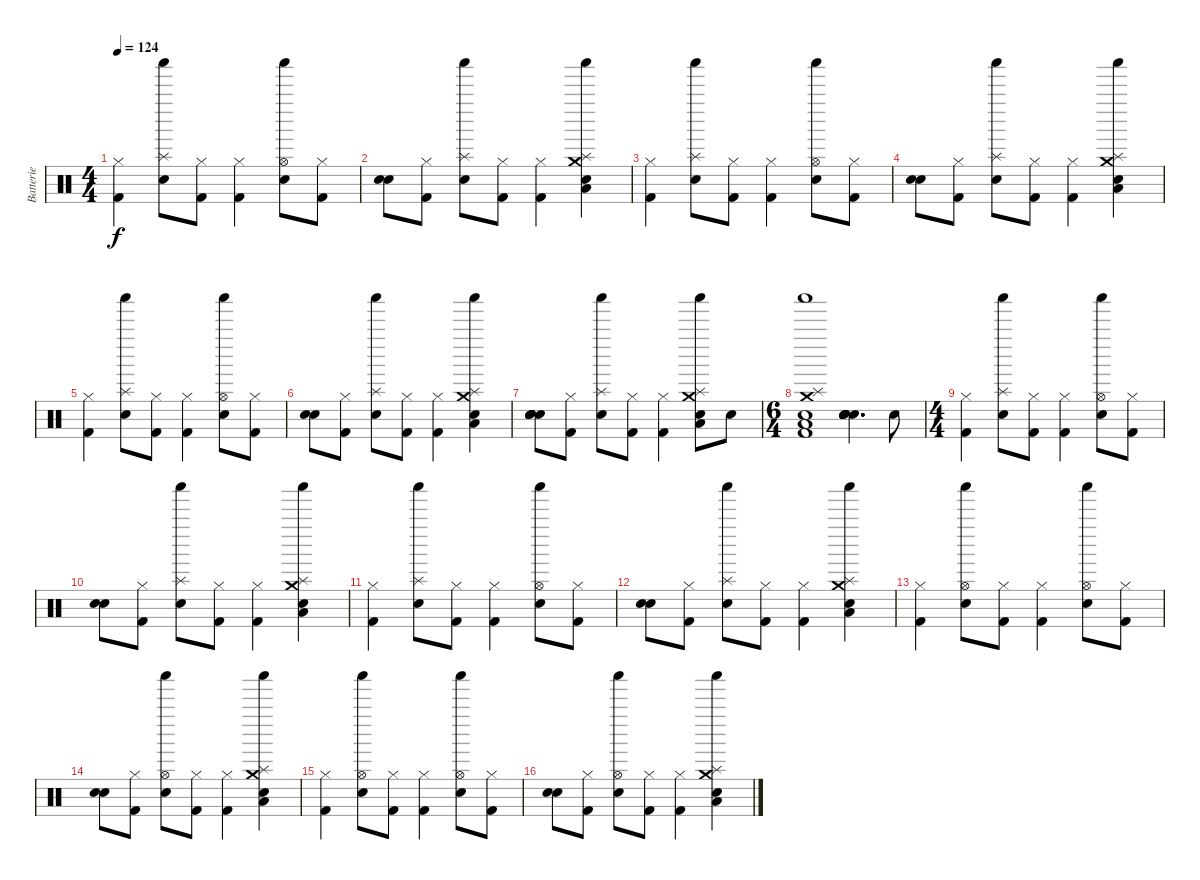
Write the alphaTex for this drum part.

\track ("Batterie" "Batterie") {instrument percussion}
\staff {score}
\articulation defaults
\ts (4 4)
\tempo 124
\clef neutral
\ks c
("Hi-Hat (closed)" "Kick (hit) 2").4{dy f} ("Shaker (hit)" "Splash (hit)" "Snare (hit) 2").8 ("Hi-Hat (closed)" "Kick (hit) 2").8 ("Hi-Hat (closed)" "Kick (hit) 2").4 ("Shaker (hit)" "Hi-Hat (open)" "Snare (hit) 2").8 ("Hi-Hat (closed)" "Kick (hit) 2").8 |
("Snare (hit)" "Snare (hit)").8 ("Hi-Hat (closed)" "Kick (hit) 2").8 ("Shaker (hit)" "Splash (hit)" "Snare (hit) 2").8 ("Hi-Hat (closed)" "Kick (hit) 2").8 ("Hi-Hat (closed)" "Kick (hit) 2").4 ("Shaker (hit)" "Splash (hit)" "Snare (hit) 2" "Crash medium (hit)" "Low Tom (hit)").4 |
("Hi-Hat (closed)" "Kick (hit) 2").4 ("Shaker (hit)" "Splash (hit)" "Snare (hit) 2").8 ("Hi-Hat (closed)" "Kick (hit) 2").8 ("Hi-Hat (closed)" "Kick (hit) 2").4 ("Shaker (hit)" "Hi-Hat (open)" "Snare (hit) 2").8 ("Hi-Hat (closed)" "Kick (hit) 2").8 |
("Snare (hit)" "Snare (hit)").8 ("Hi-Hat (closed)" "Kick (hit) 2").8 ("Shaker (hit)" "Splash (hit)" "Snare (hit) 2").8 ("Hi-Hat (closed)" "Kick (hit) 2").8 ("Hi-Hat (closed)" "Kick (hit) 2").4 ("Shaker (hit)" "Splash (hit)" "Snare (hit) 2" "Crash medium (hit)" "Low Tom (hit)").4 |
("Hi-Hat (closed)" "Kick (hit) 2").4 ("Shaker (hit)" "Splash (hit)" "Snare (hit) 2").8 ("Hi-Hat (closed)" "Kick (hit) 2").8 ("Hi-Hat (closed)" "Kick (hit) 2").4 ("Shaker (hit)" "Hi-Hat (open)" "Snare (hit) 2").8 ("Hi-Hat (closed)" "Kick (hit) 2").8 |
("Snare (hit)" "Snare (hit)").8 ("Hi-Hat (closed)" "Kick (hit) 2").8 ("Shaker (hit)" "Splash (hit)" "Snare (hit) 2").8 ("Hi-Hat (closed)" "Kick (hit) 2").8 ("Hi-Hat (closed)" "Kick (hit) 2").4 ("Shaker (hit)" "Splash (hit)" "Snare (hit) 2" "Crash medium (hit)" "Low Tom (hit)").4 |
("Snare (hit)" "Snare (hit)" "Snare (hit)" "Snare (hit)" "Snare (hit)").8 ("Hi-Hat (closed)" "Kick (hit) 2").8 ("Shaker (hit)" "Splash (hit)" "Snare (hit) 2").8 ("Hi-Hat (closed)" "Kick (hit) 2").8 ("Hi-Hat (closed)" "Kick (hit) 2").4 ("Shaker (hit)" "Splash (hit)" "Snare (hit) 2" "Crash medium (hit)" "Low Tom (hit)").8 "Snare (hit) 2".8 |
\ts (6 4)
("Low Tom (hit)" "Shaker (hit)" "Crash medium (hit)" "Snare (hit) 2" "Splash (hit)" "Kick (hit) 2").1 ("Snare (hit)" "Snare (hit)" "Snare (hit)" "Snare (hit)" "Snare (hit)" "Snare (hit)").4{d} "Snare (hit) 2".8 |
\ts (4 4)
("Hi-Hat (closed)" "Kick (hit) 2").4 ("Shaker (hit)" "Splash (hit)" "Snare (hit) 2").8 ("Hi-Hat (closed)" "Kick (hit) 2").8 ("Hi-Hat (closed)" "Kick (hit) 2").4 ("Shaker (hit)" "Hi-Hat (open)" "Snare (hit) 2").8 ("Hi-Hat (closed)" "Kick (hit) 2").8 |
("Snare (hit)" "Snare (hit)").8 ("Hi-Hat (closed)" "Kick (hit) 2").8 ("Shaker (hit)" "Splash (hit)" "Snare (hit) 2").8 ("Hi-Hat (closed)" "Kick (hit) 2").8 ("Hi-Hat (closed)" "Kick (hit) 2").4 ("Shaker (hit)" "Splash (hit)" "Snare (hit) 2" "Crash medium (hit)" "Low Tom (hit)").4 |
("Hi-Hat (closed)" "Kick (hit) 2").4 ("Shaker (hit)" "Splash (hit)" "Snare (hit) 2").8 ("Hi-Hat (closed)" "Kick (hit) 2").8 ("Hi-Hat (closed)" "Kick (hit) 2").4 ("Shaker (hit)" "Hi-Hat (open)" "Snare (hit) 2").8 ("Hi-Hat (closed)" "Kick (hit) 2").8 |
("Snare (hit)" "Snare (hit)").8 ("Hi-Hat (closed)" "Kick (hit) 2").8 ("Shaker (hit)" "Splash (hit)" "Snare (hit) 2").8 ("Hi-Hat (closed)" "Kick (hit) 2").8 ("Hi-Hat (closed)" "Kick (hit) 2").4 ("Shaker (hit)" "Splash (hit)" "Snare (hit) 2" "Crash medium (hit)" "Low Tom (hit)").4 |
("Hi-Hat (closed)" "Kick (hit) 2").4 ("Shaker (hit)" "Hi-Hat (open)" "Snare (hit) 2").8 ("Hi-Hat (closed)" "Kick (hit) 2").8 ("Hi-Hat (closed)" "Kick (hit) 2").4 ("Shaker (hit)" "Hi-Hat (open)" "Snare (hit) 2").8 ("Hi-Hat (closed)" "Kick (hit) 2").8 |
("Snare (hit)" "Snare (hit)").8 ("Hi-Hat (closed)" "Kick (hit) 2").8 ("Shaker (hit)" "Hi-Hat (open)" "Snare (hit) 2").8 ("Hi-Hat (closed)" "Kick (hit) 2").8 ("Hi-Hat (closed)" "Kick (hit) 2").4 ("Shaker (hit)" "Splash (hit)" "Snare (hit) 2" "Crash medium (hit)" "Low Tom (hit)").4 |
("Hi-Hat (closed)" "Kick (hit) 2").4 ("Shaker (hit)" "Hi-Hat (open)" "Snare (hit) 2").8 ("Hi-Hat (closed)" "Kick (hit) 2").8 ("Hi-Hat (closed)" "Kick (hit) 2").4 ("Shaker (hit)" "Hi-Hat (open)" "Snare (hit) 2").8 ("Hi-Hat (closed)" "Kick (hit) 2").8 |
("Snare (hit)" "Snare (hit)").8 ("Hi-Hat (closed)" "Kick (hit) 2").8 ("Shaker (hit)" "Hi-Hat (open)" "Snare (hit) 2").8 ("Hi-Hat (closed)" "Kick (hit) 2").8 ("Hi-Hat (closed)" "Kick (hit) 2").4 ("Shaker (hit)" "Splash (hit)" "Snare (hit) 2" "Crash medium (hit)" "Low Tom (hit)").4
